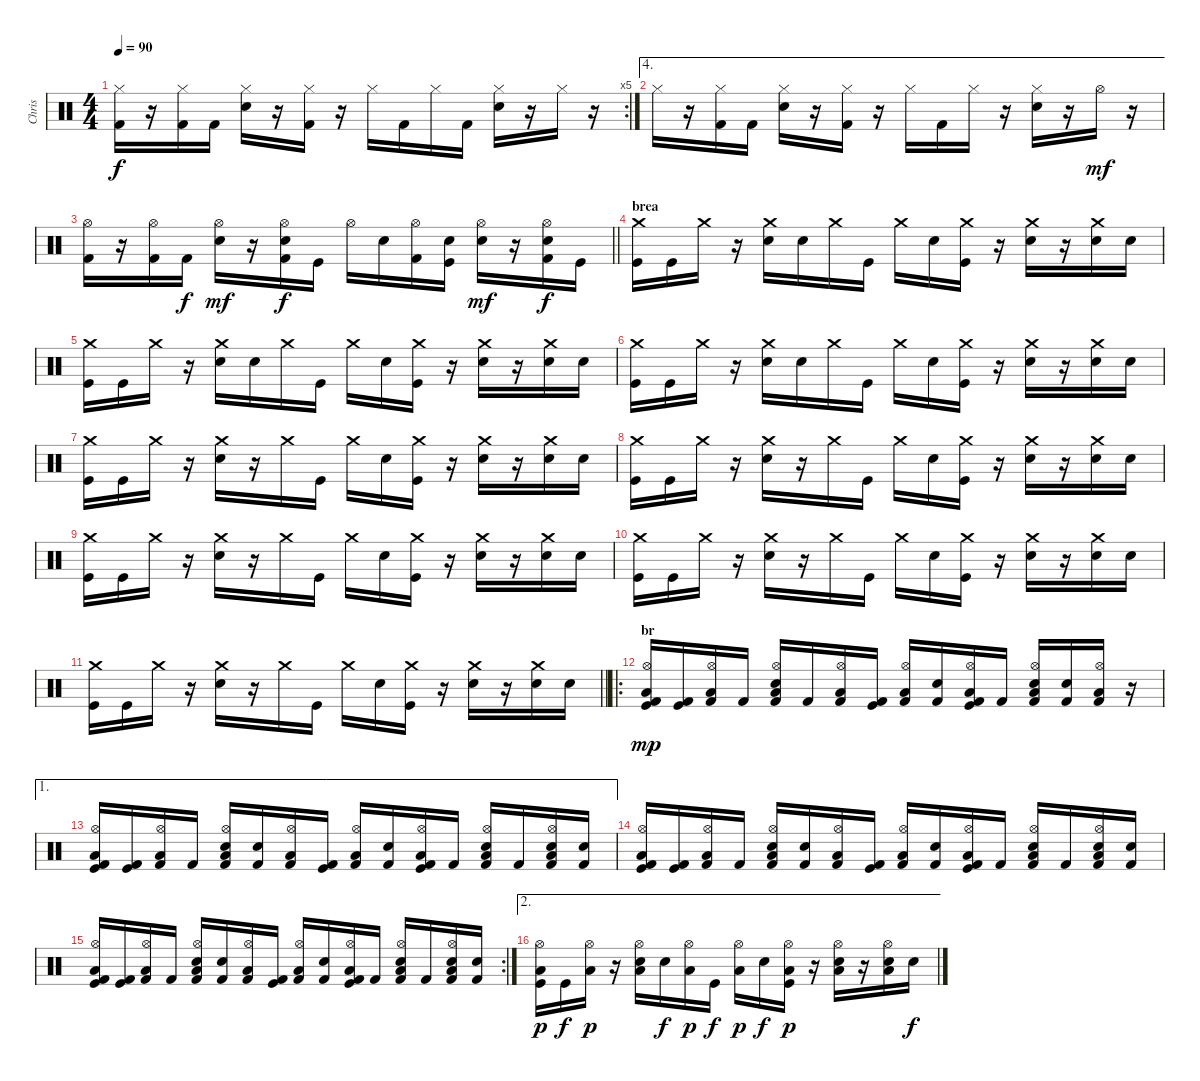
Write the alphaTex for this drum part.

\track ("Chris" "Chris") {instrument percussion}
\staff {score}
\articulation defaults
\rc 5
\ts (4 4)
\tempo 90
\clef neutral
\ks c
("Hi-Hat (closed)" "Kick (hit) 2").16{dy f} r.16 ("Hi-Hat (closed)" "Kick (hit) 2").16 "Kick (hit) 2".16 ("Hi-Hat (closed)" "Electric Snare (hit)").16 r.16 ("Hi-Hat (closed)" "Kick (hit) 2").16 r.16 "Hi-Hat (closed)".16 "Kick (hit) 2".16 "Hi-Hat (closed)".16 "Kick (hit) 2".16 ("Hi-Hat (closed)" "Electric Snare (hit)").16 r.16 "Hi-Hat (closed)".16 r.16 |
\ae 4 "Hi-Hat (closed)".16
r.16 ("Hi-Hat (closed)" "Kick (hit) 2").16 "Kick (hit) 2".16 ("Hi-Hat (closed)" "Electric Snare (hit)").16 r.16 ("Hi-Hat (closed)" "Kick (hit) 2").16 r.16 "Hi-Hat (closed)".16 "Kick (hit) 2".16 "Hi-Hat (closed)".16 r.16 ("Hi-Hat (closed)" "Electric Snare (hit)").16 r.16 "Hi-Hat (open)".16{dy mf} r.16 |
\barLineRight lightlight
("Hi-Hat (open)" "Kick (hit) 2").16 r.16 ("Hi-Hat (open)" "Kick (hit) 2").16 "Kick (hit) 2".16{dy f} ("Hi-Hat (open)" "Electric Snare (hit)").16{dy mf} r.16 ("Hi-Hat (open)" "Electric Snare (hit)" "Kick (hit) 2").16{dy f} "Kick (hit)".16 "Hi-Hat (open)".16 "Electric Snare (hit)".16 ("Hi-Hat (open)" "Kick (hit) 2").16 ("Electric Snare (hit)" "Kick (hit)").16 ("Hi-Hat (open)" "Electric Snare (hit)").16{dy mf} r.16 ("Hi-Hat (open)" "Electric Snare (hit)" "Kick (hit) 2").16{dy f} "Kick (hit)".16 |
\section ("" "brea")
("Crash medium (hit)" "Kick (hit)").16 "Kick (hit)".16 "Crash medium (hit)".16 r.16 ("Crash medium (hit)" "Electric Snare (hit)").16 "Electric Snare (hit)".16 "Crash medium (hit)".16 "Kick (hit)".16 "Crash medium (hit)".16 "Electric Snare (hit)".16 ("Crash medium (hit)" "Kick (hit)").16 r.16 ("Crash medium (hit)" "Electric Snare (hit)").16 r.16 ("Crash medium (hit)" "Electric Snare (hit)").16 "Electric Snare (hit)".16 |
("Crash medium (hit)" "Kick (hit)").16 "Kick (hit)".16 "Crash medium (hit)".16 r.16 ("Crash medium (hit)" "Electric Snare (hit)").16 "Electric Snare (hit)".16 "Crash medium (hit)".16 "Kick (hit)".16 "Crash medium (hit)".16 "Electric Snare (hit)".16 ("Crash medium (hit)" "Kick (hit)").16 r.16 ("Crash medium (hit)" "Electric Snare (hit)").16 r.16 ("Crash medium (hit)" "Electric Snare (hit)").16 "Electric Snare (hit)".16 |
("Crash medium (hit)" "Kick (hit)").16 "Kick (hit)".16 "Crash medium (hit)".16 r.16 ("Crash medium (hit)" "Electric Snare (hit)").16 "Electric Snare (hit)".16 "Crash medium (hit)".16 "Kick (hit)".16 "Crash medium (hit)".16 "Electric Snare (hit)".16 ("Crash medium (hit)" "Kick (hit)").16 r.16 ("Crash medium (hit)" "Electric Snare (hit)").16 r.16 ("Crash medium (hit)" "Electric Snare (hit)").16 "Electric Snare (hit)".16 |
("Crash medium (hit)" "Kick (hit)").16 "Kick (hit)".16 "Crash medium (hit)".16 r.16 ("Crash medium (hit)" "Electric Snare (hit)").16 r.16 "Crash medium (hit)".16 "Kick (hit)".16 "Crash medium (hit)".16 "Electric Snare (hit)".16 ("Crash medium (hit)" "Kick (hit)").16 r.16 ("Crash medium (hit)" "Electric Snare (hit)").16 r.16 ("Crash medium (hit)" "Electric Snare (hit)").16 "Electric Snare (hit)".16 |
("Crash medium (hit)" "Kick (hit)").16 "Kick (hit)".16 "Crash medium (hit)".16 r.16 ("Crash medium (hit)" "Electric Snare (hit)").16 r.16 "Crash medium (hit)".16 "Kick (hit)".16 "Crash medium (hit)".16 "Electric Snare (hit)".16 ("Crash medium (hit)" "Kick (hit)").16 r.16 ("Crash medium (hit)" "Electric Snare (hit)").16 r.16 ("Crash medium (hit)" "Electric Snare (hit)").16 "Electric Snare (hit)".16 |
("Crash medium (hit)" "Kick (hit)").16 "Kick (hit)".16 "Crash medium (hit)".16 r.16 ("Crash medium (hit)" "Electric Snare (hit)").16 r.16 "Crash medium (hit)".16 "Kick (hit)".16 "Crash medium (hit)".16 "Electric Snare (hit)".16 ("Crash medium (hit)" "Kick (hit)").16 r.16 ("Crash medium (hit)" "Electric Snare (hit)").16 r.16 ("Crash medium (hit)" "Electric Snare (hit)").16 "Electric Snare (hit)".16 |
("Crash medium (hit)" "Kick (hit)").16 "Kick (hit)".16 "Crash medium (hit)".16 r.16 ("Crash medium (hit)" "Electric Snare (hit)").16 r.16 "Crash medium (hit)".16 "Kick (hit)".16 "Crash medium (hit)".16 "Electric Snare (hit)".16 ("Crash medium (hit)" "Kick (hit)").16 r.16 ("Crash medium (hit)" "Electric Snare (hit)").16 r.16 ("Crash medium (hit)" "Electric Snare (hit)").16 "Electric Snare (hit)".16 |
\barLineRight lightlight
("Crash medium (hit)" "Kick (hit)").16 "Kick (hit)".16 "Crash medium (hit)".16 r.16 ("Crash medium (hit)" "Electric Snare (hit)").16 r.16 "Crash medium (hit)".16 "Kick (hit)".16 "Crash medium (hit)".16 "Electric Snare (hit)".16 ("Crash medium (hit)" "Kick (hit)").16 r.16 ("Crash medium (hit)" "Electric Snare (hit)").16 r.16 ("Crash medium (hit)" "Electric Snare (hit)").16 "Electric Snare (hit)".16 |
\ro
\section ("" "br")
("Low Floor Tom (hit)" "Hi-Hat (open)" "Kick (hit) 2" "Kick (hit)").16{dy mp} ("Kick (hit) 2" "Kick (hit)").16 ("Low Floor Tom (hit)" "Hi-Hat (open)" "Kick (hit) 2").16 "Kick (hit) 2".16 ("Low Floor Tom (hit)" "Hi-Hat (open)" "Kick (hit) 2" "Electric Snare (hit)").16 "Kick (hit) 2".16 ("Low Floor Tom (hit)" "Hi-Hat (open)" "Kick (hit) 2").16 ("Kick (hit) 2" "Kick (hit)").16 ("Low Floor Tom (hit)" "Hi-Hat (open)" "Kick (hit) 2").16 ("Kick (hit) 2" "Electric Snare (hit)").16 ("Low Floor Tom (hit)" "Hi-Hat (open)" "Kick (hit) 2" "Kick (hit)").16 "Kick (hit) 2".16 ("Low Floor Tom (hit)" "Hi-Hat (open)" "Kick (hit) 2" "Electric Snare (hit)").16 ("Kick (hit) 2" "Electric Snare (hit)").16 ("Low Floor Tom (hit)" "Hi-Hat (open)" "Kick (hit) 2").16 r.16 |
\ae 1
("Low Floor Tom (hit)" "Hi-Hat (open)" "Kick (hit) 2" "Kick (hit)").16 ("Kick (hit) 2" "Kick (hit)").16 ("Low Floor Tom (hit)" "Hi-Hat (open)" "Kick (hit) 2").16 "Kick (hit) 2".16 ("Low Floor Tom (hit)" "Hi-Hat (open)" "Kick (hit) 2" "Electric Snare (hit)").16 ("Kick (hit) 2" "Electric Snare (hit)").16 ("Low Floor Tom (hit)" "Hi-Hat (open)" "Kick (hit) 2").16 ("Kick (hit) 2" "Kick (hit)").16 ("Low Floor Tom (hit)" "Hi-Hat (open)" "Kick (hit) 2").16 ("Kick (hit) 2" "Electric Snare (hit)").16 ("Low Floor Tom (hit)" "Hi-Hat (open)" "Kick (hit) 2" "Kick (hit)").16 "Kick (hit) 2".16 ("Low Floor Tom (hit)" "Hi-Hat (open)" "Kick (hit) 2" "Electric Snare (hit)").16 "Kick (hit) 2".16 ("Low Floor Tom (hit)" "Hi-Hat (open)" "Kick (hit) 2" "Electric Snare (hit)").16 ("Kick (hit) 2" "Electric Snare (hit)").16 |
("Low Floor Tom (hit)" "Hi-Hat (open)" "Kick (hit) 2" "Kick (hit)").16 ("Kick (hit) 2" "Kick (hit)").16 ("Low Floor Tom (hit)" "Hi-Hat (open)" "Kick (hit) 2").16 "Kick (hit) 2".16 ("Low Floor Tom (hit)" "Hi-Hat (open)" "Kick (hit) 2" "Electric Snare (hit)").16 ("Kick (hit) 2" "Electric Snare (hit)").16 ("Low Floor Tom (hit)" "Hi-Hat (open)" "Kick (hit) 2").16 ("Kick (hit) 2" "Kick (hit)").16 ("Low Floor Tom (hit)" "Hi-Hat (open)" "Kick (hit) 2").16 ("Kick (hit) 2" "Electric Snare (hit)").16 ("Low Floor Tom (hit)" "Hi-Hat (open)" "Kick (hit) 2" "Kick (hit)").16 "Kick (hit) 2".16 ("Low Floor Tom (hit)" "Hi-Hat (open)" "Kick (hit) 2" "Electric Snare (hit)").16 "Kick (hit) 2".16 ("Low Floor Tom (hit)" "Hi-Hat (open)" "Kick (hit) 2" "Electric Snare (hit)").16 ("Kick (hit) 2" "Electric Snare (hit)").16 |
\rc 2
("Low Floor Tom (hit)" "Hi-Hat (open)" "Kick (hit) 2" "Kick (hit)").16 ("Kick (hit) 2" "Kick (hit)").16 ("Low Floor Tom (hit)" "Hi-Hat (open)" "Kick (hit) 2").16 "Kick (hit) 2".16 ("Low Floor Tom (hit)" "Hi-Hat (open)" "Kick (hit) 2" "Electric Snare (hit)").16 ("Kick (hit) 2" "Electric Snare (hit)").16 ("Low Floor Tom (hit)" "Hi-Hat (open)" "Kick (hit) 2").16 ("Kick (hit) 2" "Kick (hit)").16 ("Low Floor Tom (hit)" "Hi-Hat (open)" "Kick (hit) 2").16 ("Kick (hit) 2" "Electric Snare (hit)").16 ("Low Floor Tom (hit)" "Hi-Hat (open)" "Kick (hit) 2" "Kick (hit)").16 "Kick (hit) 2".16 ("Low Floor Tom (hit)" "Hi-Hat (open)" "Kick (hit) 2" "Electric Snare (hit)").16 "Kick (hit) 2".16 ("Low Floor Tom (hit)" "Hi-Hat (open)" "Kick (hit) 2" "Electric Snare (hit)").16 ("Kick (hit) 2" "Electric Snare (hit)").16 |
\ae 2
("Low Floor Tom (hit)" "Hi-Hat (open)" "Kick (hit)").16{dy p} "Kick (hit)".16{dy f} ("Low Floor Tom (hit)" "Hi-Hat (open)").16{dy p} r.16 ("Low Floor Tom (hit)" "Hi-Hat (open)" "Electric Snare (hit)").16 "Electric Snare (hit)".16{dy f} ("Low Floor Tom (hit)" "Hi-Hat (open)").16{dy p} "Kick (hit)".16{dy f} ("Low Floor Tom (hit)" "Hi-Hat (open)").16{dy p} "Electric Snare (hit)".16{dy f} ("Low Floor Tom (hit)" "Hi-Hat (open)" "Kick (hit)").16{dy p} r.16 ("Low Floor Tom (hit)" "Hi-Hat (open)" "Electric Snare (hit)").16 r.16 ("Low Floor Tom (hit)" "Hi-Hat (open)" "Electric Snare (hit)").16 "Electric Snare (hit)".16{dy f}
